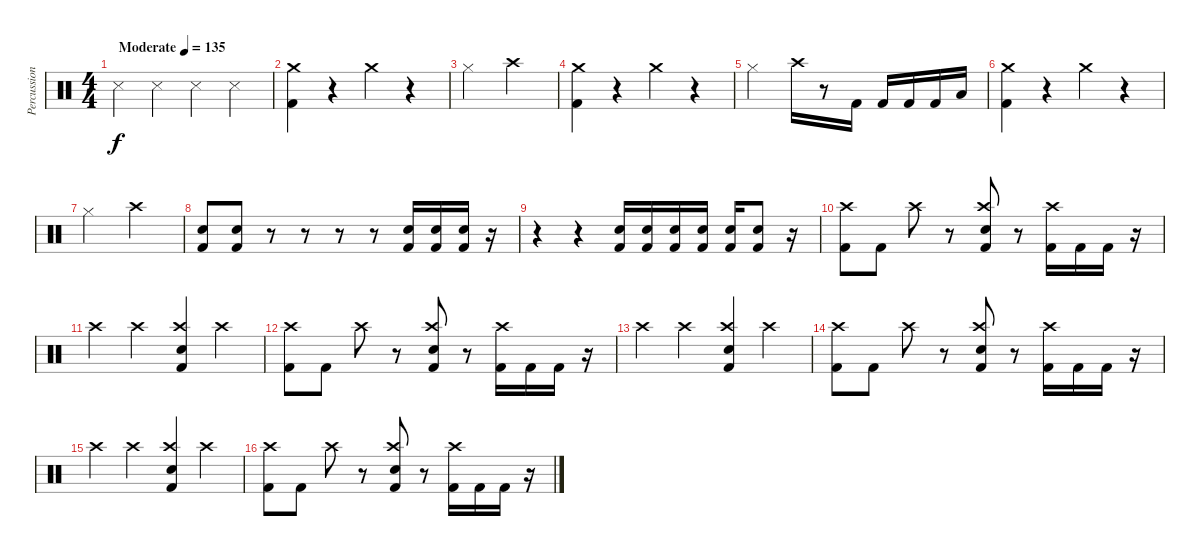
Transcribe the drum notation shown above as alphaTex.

\track ("Percussion" "Percussion") {instrument percussion}
\staff {score}
\articulation defaults
\ts (4 4)
\tempo (135 "Moderate")
\clef neutral
\ks c "Snare (side stick) 3".4{dy f} "Snare (side stick) 3".4 "Snare (side stick) 3".4 "Snare (side stick) 3".4
|
("Crash medium (hit)" "Kick (hit) 2").4 r.4 "Crash medium (hit)".4 r.4 |
"Hi-Hat (closed)".2 "Crash high (hit)".2 |
("Crash medium (hit)" "Kick (hit) 2").4 r.4 "Crash medium (hit)".4 r.4 |
"Hi-Hat (closed)".2 "Crash high (hit)".16 r.8 "Kick (hit) 2".16 "Kick (hit) 2".16 "Kick (hit) 2".16 "Kick (hit) 2".16 "Low Tom (hit)".16 |
("Crash medium (hit)" "Kick (hit) 2").4 r.4 "Crash medium (hit)".4 r.4 |
"Hi-Hat (closed)".2 "Crash high (hit)".2 |
("Electric Snare (hit)" "Kick (hit) 2").8 ("Electric Snare (hit)" "Kick (hit) 2").8 r.8 r.8 r.8 r.8 ("Electric Snare (hit)" "Kick (hit) 2").16 ("Electric Snare (hit)" "Kick (hit) 2").16 ("Electric Snare (hit)" "Kick (hit) 2").16 r.16 |
r.4 r.4 ("Electric Snare (hit)" "Kick (hit) 2").16 ("Electric Snare (hit)" "Kick (hit) 2").16 ("Electric Snare (hit)" "Kick (hit) 2").16 ("Electric Snare (hit)" "Kick (hit) 2").16 ("Electric Snare (hit)" "Kick (hit) 2").16 ("Electric Snare (hit)" "Kick (hit) 2").8 r.16 |
("Crash high (hit)" "Kick (hit) 2").8 "Kick (hit) 2".8 "Crash high (hit)".8 r.8 ("Crash high (hit)" "Electric Snare (hit)" "Kick (hit) 2").8 r.8 ("Crash high (hit)" "Kick (hit) 2").16 "Kick (hit) 2".16 "Kick (hit) 2".16 r.16 |
"Crash high (hit)".4 "Crash high (hit)".4 ("Crash high (hit)" "Electric Snare (hit)" "Kick (hit) 2").4 "Crash high (hit)".4 |
("Crash high (hit)" "Kick (hit) 2").8 "Kick (hit) 2".8 "Crash high (hit)".8 r.8 ("Crash high (hit)" "Electric Snare (hit)" "Kick (hit) 2").8 r.8 ("Crash high (hit)" "Kick (hit) 2").16 "Kick (hit) 2".16 "Kick (hit) 2".16 r.16 |
"Crash high (hit)".4 "Crash high (hit)".4 ("Crash high (hit)" "Electric Snare (hit)" "Kick (hit) 2").4 "Crash high (hit)".4 |
("Crash high (hit)" "Kick (hit) 2").8 "Kick (hit) 2".8 "Crash high (hit)".8 r.8 ("Crash high (hit)" "Electric Snare (hit)" "Kick (hit) 2").8 r.8 ("Crash high (hit)" "Kick (hit) 2").16 "Kick (hit) 2".16 "Kick (hit) 2".16 r.16 |
"Crash high (hit)".4 "Crash high (hit)".4 ("Crash high (hit)" "Electric Snare (hit)" "Kick (hit) 2").4 "Crash high (hit)".4 |
("Crash high (hit)" "Kick (hit) 2").8 "Kick (hit) 2".8 "Crash high (hit)".8 r.8 ("Crash high (hit)" "Electric Snare (hit)" "Kick (hit) 2").8 r.8 ("Crash high (hit)" "Kick (hit) 2").16 "Kick (hit) 2".16 "Kick (hit) 2".16 r.16
